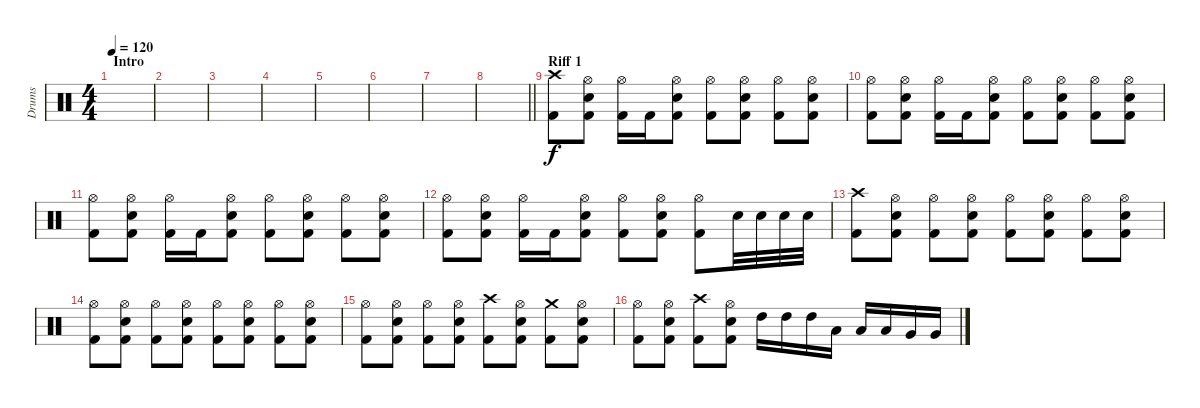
\track ("Drums" "Drums") {instrument percussion}
\staff {score}
\articulation defaults
\ts (4 4)
\section ("" "Intro")
\tempo 120
\clef neutral
\ks c
|
|
|
|
|
|
|
\barLineRight lightlight
|
\section ("" "Riff 1")
("Crash high (hit)" "Kick (hit) 2").8 ("Hi-Hat (open)" "Electric Snare (hit)" "Kick (hit) 2").8 ("Hi-Hat (open)" "Kick (hit) 2").16 "Kick (hit) 2".16 ("Hi-Hat (open)" "Electric Snare (hit)" "Kick (hit) 2").8 ("Hi-Hat (open)" "Kick (hit) 2").8 ("Hi-Hat (open)" "Electric Snare (hit)" "Kick (hit) 2").8 ("Hi-Hat (open)" "Kick (hit) 2").8 ("Hi-Hat (open)" "Electric Snare (hit)" "Kick (hit) 2").8 |
("Hi-Hat (open)" "Kick (hit) 2").8 ("Hi-Hat (open)" "Electric Snare (hit)" "Kick (hit) 2").8 ("Hi-Hat (open)" "Kick (hit) 2").16 "Kick (hit) 2".16 ("Hi-Hat (open)" "Electric Snare (hit)" "Kick (hit) 2").8 ("Hi-Hat (open)" "Kick (hit) 2").8 ("Hi-Hat (open)" "Electric Snare (hit)" "Kick (hit) 2").8 ("Hi-Hat (open)" "Kick (hit) 2").8 ("Hi-Hat (open)" "Electric Snare (hit)" "Kick (hit) 2").8 |
("Hi-Hat (open)" "Kick (hit) 2").8 ("Hi-Hat (open)" "Electric Snare (hit)" "Kick (hit) 2").8 ("Hi-Hat (open)" "Kick (hit) 2").16 "Kick (hit) 2".16 ("Hi-Hat (open)" "Electric Snare (hit)" "Kick (hit) 2").8 ("Hi-Hat (open)" "Kick (hit) 2").8 ("Hi-Hat (open)" "Electric Snare (hit)" "Kick (hit) 2").8 ("Hi-Hat (open)" "Kick (hit) 2").8 ("Hi-Hat (open)" "Electric Snare (hit)" "Kick (hit) 2").8 |
("Hi-Hat (open)" "Kick (hit) 2").8 ("Hi-Hat (open)" "Electric Snare (hit)" "Kick (hit) 2").8 ("Hi-Hat (open)" "Kick (hit) 2").16 "Kick (hit) 2".16 ("Hi-Hat (open)" "Electric Snare (hit)" "Kick (hit) 2").8 ("Hi-Hat (open)" "Kick (hit) 2").8 ("Hi-Hat (open)" "Electric Snare (hit)" "Kick (hit) 2").8 ("Hi-Hat (open)" "Kick (hit) 2").8 "Electric Snare (hit)".32 "Electric Snare (hit)".32 "Electric Snare (hit)".32 "Electric Snare (hit)".32 |
("Crash high (hit)" "Kick (hit) 2").8 ("Hi-Hat (open)" "Electric Snare (hit)" "Kick (hit) 2").8 ("Hi-Hat (open)" "Kick (hit) 2").8 ("Hi-Hat (open)" "Electric Snare (hit)" "Kick (hit) 2").8 ("Hi-Hat (open)" "Kick (hit) 2").8 ("Hi-Hat (open)" "Electric Snare (hit)" "Kick (hit) 2").8 ("Hi-Hat (open)" "Kick (hit) 2").8 ("Hi-Hat (open)" "Electric Snare (hit)" "Kick (hit) 2").8 |
("Hi-Hat (open)" "Kick (hit) 2").8 ("Hi-Hat (open)" "Electric Snare (hit)" "Kick (hit) 2").8 ("Hi-Hat (open)" "Kick (hit) 2").8 ("Hi-Hat (open)" "Electric Snare (hit)" "Kick (hit) 2").8 ("Hi-Hat (open)" "Kick (hit) 2").8 ("Hi-Hat (open)" "Electric Snare (hit)" "Kick (hit) 2").8 ("Hi-Hat (open)" "Kick (hit) 2").8 ("Hi-Hat (open)" "Electric Snare (hit)" "Kick (hit) 2").8 |
("Hi-Hat (open)" "Kick (hit) 2").8 ("Hi-Hat (open)" "Electric Snare (hit)" "Kick (hit) 2").8 ("Hi-Hat (open)" "Kick (hit) 2").8 ("Hi-Hat (open)" "Electric Snare (hit)" "Kick (hit) 2").8 ("Crash high (hit)" "Kick (hit) 2").8 ("Hi-Hat (open)" "Electric Snare (hit)" "Kick (hit) 2").8 ("Crash medium (hit)" "Kick (hit) 2").8 ("Hi-Hat (open)" "Electric Snare (hit)" "Kick (hit) 2").8 |
("Hi-Hat (open)" "Kick (hit) 2").8 ("Hi-Hat (open)" "Electric Snare (hit)" "Kick (hit) 2").8 ("Crash high (hit)" "Kick (hit) 2").8 ("Hi-Hat (open)" "Electric Snare (hit)" "Kick (hit) 2").8 "High Tom (hit)".16 "High Tom (hit)".16 "High Tom (hit)".16 "Low Tom (hit)".16 "Low Tom (hit)".16 "Low Tom (hit)".16 "Very Low Tom (hit)".16 "Very Low Tom (hit)".16
